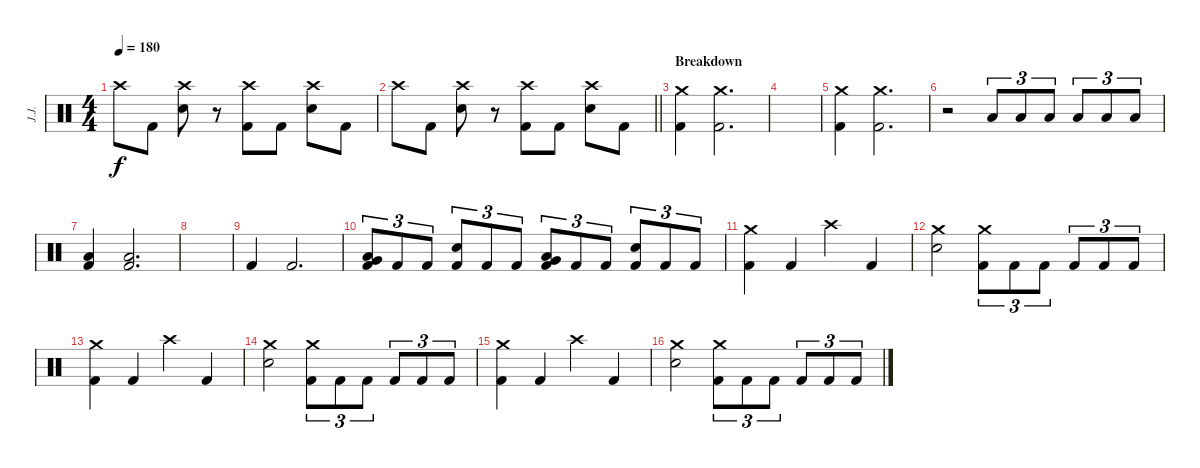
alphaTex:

\track ("J.J." "J.J.") {instrument percussion}
\staff {score}
\articulation defaults
\ts (4 4)
\tempo 180
\clef neutral
\ks c "Crash high (hit)".8{dy f} "Kick (hit) 2".8
("Crash high (hit)" "Electric Snare (hit)").8 r.8 ("Crash high (hit)" "Kick (hit) 2").8 "Kick (hit) 2".8 ("Crash high (hit)" "Electric Snare (hit)").8 "Kick (hit) 2".8 |
\barLineRight lightlight "Crash high (hit)".8 "Kick (hit) 2".8
("Crash high (hit)" "Electric Snare (hit)").8 r.8 ("Crash high (hit)" "Kick (hit) 2").8 "Kick (hit) 2".8 ("Crash high (hit)" "Electric Snare (hit)").8 "Kick (hit) 2".8 |
\section ("" "Breakdown")
("Crash medium (hit)" "Kick (hit) 2").4 ("Crash medium (hit)" "Kick (hit) 2").2{d} |
|
("Crash medium (hit)" "Kick (hit) 2").4 ("Crash medium (hit)" "Kick (hit) 2").2{d} |
r.2 "Low Floor Tom (hit)".8{tu (3 2)} "Low Floor Tom (hit)".8{tu (3 2)} "Low Floor Tom (hit)".8{tu (3 2)} "Low Floor Tom (hit)".8{tu (3 2)} "Low Floor Tom (hit)".8{tu (3 2)} "Low Floor Tom (hit)".8{tu (3 2)} |
("Low Floor Tom (hit)" "Kick (hit) 2").4 ("Low Floor Tom (hit)" "Kick (hit) 2").2{d} |
|
"Kick (hit) 2".4 "Kick (hit) 2".2{d} |
("Very Low Tom (hit)" "Low Floor Tom (hit)" "Kick (hit) 2").8{tu (3 2)} "Kick (hit) 2".8{tu (3 2)} "Kick (hit) 2".8{tu (3 2)} ("Electric Snare (hit)" "Kick (hit) 2").8{tu (3 2)} "Kick (hit) 2".8{tu (3 2)} "Kick (hit) 2".8{tu (3 2)} ("Very Low Tom (hit)" "Low Floor Tom (hit)" "Kick (hit) 2").8{tu (3 2)} "Kick (hit) 2".8{tu (3 2)} "Kick (hit) 2".8{tu (3 2)} ("Electric Snare (hit)" "Kick (hit) 2").8{tu (3 2)} "Kick (hit) 2".8{tu (3 2)} "Kick (hit) 2".8{tu (3 2)} |
("Crash medium (hit)" "Kick (hit) 2").4 "Kick (hit) 2".4 "Crash high (hit)".4 "Kick (hit) 2".4 |
("Crash medium (hit)" "Electric Snare (hit)").2 ("Crash medium (hit)" "Kick (hit) 2").8{tu (3 2)} "Kick (hit) 2".8{tu (3 2)} "Kick (hit) 2".8{tu (3 2)} "Kick (hit) 2".8{tu (3 2)} "Kick (hit) 2".8{tu (3 2)} "Kick (hit) 2".8{tu (3 2)} |
("Crash medium (hit)" "Kick (hit) 2").4 "Kick (hit) 2".4 "Crash high (hit)".4 "Kick (hit) 2".4 |
("Crash medium (hit)" "Electric Snare (hit)").2 ("Crash medium (hit)" "Kick (hit) 2").8{tu (3 2)} "Kick (hit) 2".8{tu (3 2)} "Kick (hit) 2".8{tu (3 2)} "Kick (hit) 2".8{tu (3 2)} "Kick (hit) 2".8{tu (3 2)} "Kick (hit) 2".8{tu (3 2)} |
("Crash medium (hit)" "Kick (hit) 2").4 "Kick (hit) 2".4 "Crash high (hit)".4 "Kick (hit) 2".4 |
("Crash medium (hit)" "Electric Snare (hit)").2 ("Crash medium (hit)" "Kick (hit) 2").8{tu (3 2)} "Kick (hit) 2".8{tu (3 2)} "Kick (hit) 2".8{tu (3 2)} "Kick (hit) 2".8{tu (3 2)} "Kick (hit) 2".8{tu (3 2)} "Kick (hit) 2".8{tu (3 2)}
